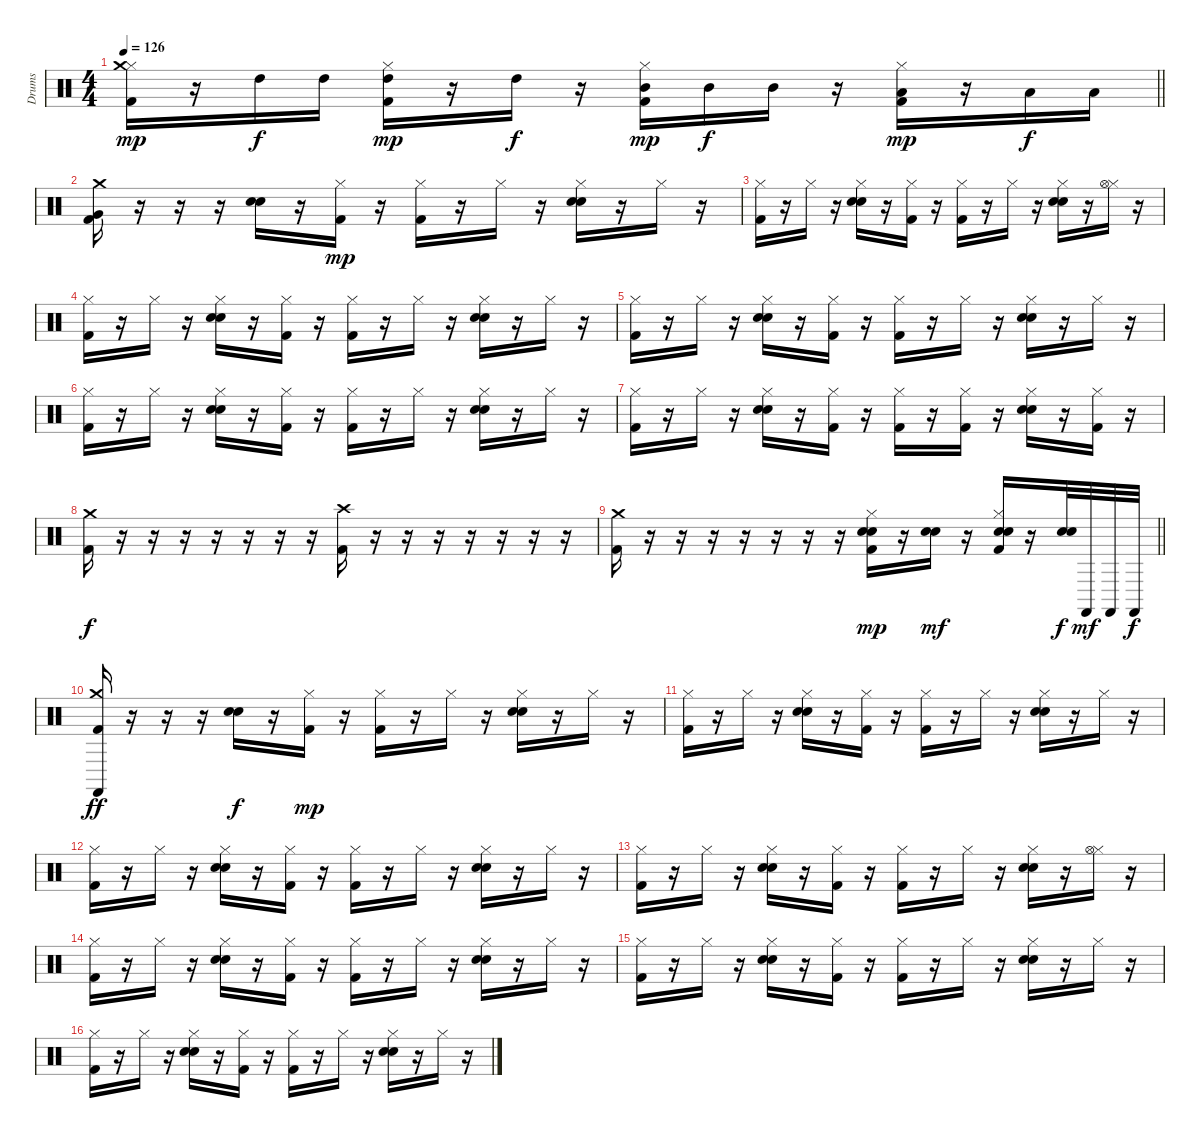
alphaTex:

\track ("Drums" "Drums") {instrument percussion}
\staff {score}
\articulation defaults
\ts (4 4)
\tempo 126
\clef neutral
\barLineRight lightlight
\ks c
("Hi-Hat (closed)" "Crash medium (hit)" "Kick (hit) 2").16{dy mp} r.16 "High Tom (hit)".16{dy f} "High Tom (hit)".16 ("Hi-Hat (closed)" "High Tom (hit)" "Kick (hit) 2").16{dy mp} r.16 "High Tom (hit)".16{dy f} r.16 ("Hi-Hat (closed)" "Mid Tom (hit)" "Kick (hit) 2").16{dy mp} "Mid Tom (hit)".16{dy f} "Mid Tom (hit)".16 r.16 ("Hi-Hat (closed)" "Low Tom (hit)" "Kick (hit) 2").16{dy mp} r.16 "Low Tom (hit)".16{dy f} "Low Tom (hit)".16 |
\section ("" "")
("Crash medium (hit)" "Very Low Tom (hit)" "Kick (hit) 2").16 r.16 r.16 r.16 ("Snare (hit) 2" "Electric Snare (hit)").16 r.16 ("Hi-Hat (closed)" "Kick (hit) 2").16{dy mp} r.16 ("Hi-Hat (closed)" "Kick (hit) 2").16 r.16 "Hi-Hat (closed)".16 r.16 ("Hi-Hat (closed)" "Snare (hit) 2" "Electric Snare (hit)").16 r.16 "Hi-Hat (closed)".16 r.16 |
("Hi-Hat (closed)" "Kick (hit) 2").16 r.16 "Hi-Hat (closed)".16 r.16 ("Hi-Hat (closed)" "Snare (hit) 2" "Electric Snare (hit)").16 r.16 ("Hi-Hat (closed)" "Kick (hit) 2").16 r.16 ("Hi-Hat (closed)" "Kick (hit) 2").16 r.16 "Hi-Hat (closed)".16 r.16 ("Hi-Hat (closed)" "Snare (hit) 2" "Electric Snare (hit)").16 r.16 ("Hi-Hat (closed)" "Hi-Hat (open)").16 r.16 |
("Hi-Hat (closed)" "Kick (hit) 2").16 r.16 "Hi-Hat (closed)".16 r.16 ("Hi-Hat (closed)" "Snare (hit) 2" "Electric Snare (hit)").16 r.16 ("Hi-Hat (closed)" "Kick (hit) 2").16 r.16 ("Hi-Hat (closed)" "Kick (hit) 2").16 r.16 "Hi-Hat (closed)".16 r.16 ("Hi-Hat (closed)" "Snare (hit) 2" "Electric Snare (hit)").16 r.16 "Hi-Hat (closed)".16 r.16 |
("Hi-Hat (closed)" "Kick (hit) 2").16 r.16 "Hi-Hat (closed)".16 r.16 ("Hi-Hat (closed)" "Snare (hit) 2" "Electric Snare (hit)").16 r.16 ("Hi-Hat (closed)" "Kick (hit) 2").16 r.16 ("Hi-Hat (closed)" "Kick (hit) 2").16 r.16 "Hi-Hat (closed)".16 r.16 ("Hi-Hat (closed)" "Snare (hit) 2" "Electric Snare (hit)").16 r.16 "Hi-Hat (closed)".16 r.16 |
("Hi-Hat (closed)" "Kick (hit) 2").16 r.16 "Hi-Hat (closed)".16 r.16 ("Hi-Hat (closed)" "Snare (hit) 2" "Electric Snare (hit)").16 r.16 ("Hi-Hat (closed)" "Kick (hit) 2").16 r.16 ("Hi-Hat (closed)" "Kick (hit) 2").16 r.16 "Hi-Hat (closed)".16 r.16 ("Hi-Hat (closed)" "Snare (hit) 2" "Electric Snare (hit)").16 r.16 "Hi-Hat (closed)".16 r.16 |
("Hi-Hat (closed)" "Kick (hit) 2").16 r.16 "Hi-Hat (closed)".16 r.16 ("Hi-Hat (closed)" "Snare (hit) 2" "Electric Snare (hit)").16 r.16 ("Hi-Hat (closed)" "Kick (hit) 2").16 r.16 ("Hi-Hat (closed)" "Kick (hit) 2").16 r.16 ("Hi-Hat (closed)" "Kick (hit) 2").16 r.16 ("Hi-Hat (closed)" "Snare (hit) 2" "Electric Snare (hit)").16 r.16 ("Hi-Hat (closed)" "Kick (hit) 2").16 r.16 |
("Crash medium (hit)" "Kick (hit) 2").16{dy f} r.16 r.16 r.16 r.16 r.16 r.16 r.16 ("Crash high (hit)" "Kick (hit) 2").16 r.16 r.16 r.16 r.16 r.16 r.16 r.16 |
\barLineRight lightlight
("Crash medium (hit)" "Kick (hit) 2").16 r.16 r.16 r.16 r.16 r.16 r.16 r.16 ("Hi-Hat (closed)" "Snare (hit) 2" "Electric Snare (hit)" "Kick (hit) 2").16{dy mp} r.16 ("Snare (hit) 2" "Electric Snare (hit)").16{dy mf} r.16 ("Hi-Hat (closed)" "Snare (hit) 2" "Electric Snare (hit)" "Kick (hit) 2").16 r.16 ("Snare (hit) 2" "Electric Snare (hit)").32{dy f} "Castanets (hit)".32{dy mf} "Castanets (hit)".32 "Castanets (hit)".32{dy f} |
\section ("" "")
("Crash medium (hit)" "Castanets (hit)" "Kick (hit) 2").16{dy ff} r.16 r.16 r.16 ("Snare (hit) 2" "Electric Snare (hit)").16{dy f} r.16 ("Hi-Hat (closed)" "Kick (hit) 2").16{dy mp} r.16 ("Hi-Hat (closed)" "Kick (hit) 2").16 r.16 "Hi-Hat (closed)".16 r.16 ("Hi-Hat (closed)" "Snare (hit) 2" "Electric Snare (hit)").16 r.16 "Hi-Hat (closed)".16 r.16 |
("Hi-Hat (closed)" "Kick (hit) 2").16 r.16 "Hi-Hat (closed)".16 r.16 ("Hi-Hat (closed)" "Snare (hit) 2" "Electric Snare (hit)").16 r.16 ("Hi-Hat (closed)" "Kick (hit) 2").16 r.16 ("Hi-Hat (closed)" "Kick (hit) 2").16 r.16 "Hi-Hat (closed)".16 r.16 ("Hi-Hat (closed)" "Snare (hit) 2" "Electric Snare (hit)").16 r.16 "Hi-Hat (closed)".16 r.16 |
("Hi-Hat (closed)" "Kick (hit) 2").16 r.16 "Hi-Hat (closed)".16 r.16 ("Hi-Hat (closed)" "Snare (hit) 2" "Electric Snare (hit)").16 r.16 ("Hi-Hat (closed)" "Kick (hit) 2").16 r.16 ("Hi-Hat (closed)" "Kick (hit) 2").16 r.16 "Hi-Hat (closed)".16 r.16 ("Hi-Hat (closed)" "Snare (hit) 2" "Electric Snare (hit)").16 r.16 "Hi-Hat (closed)".16 r.16 |
("Hi-Hat (closed)" "Kick (hit) 2").16 r.16 "Hi-Hat (closed)".16 r.16 ("Hi-Hat (closed)" "Snare (hit) 2" "Electric Snare (hit)").16 r.16 ("Hi-Hat (closed)" "Kick (hit) 2").16 r.16 ("Hi-Hat (closed)" "Kick (hit) 2").16 r.16 "Hi-Hat (closed)".16 r.16 ("Hi-Hat (closed)" "Snare (hit) 2" "Electric Snare (hit)").16 r.16 ("Hi-Hat (closed)" "Hi-Hat (open)").16 r.16 |
("Hi-Hat (closed)" "Kick (hit) 2").16 r.16 "Hi-Hat (closed)".16 r.16 ("Hi-Hat (closed)" "Snare (hit) 2" "Electric Snare (hit)").16 r.16 ("Hi-Hat (closed)" "Kick (hit) 2").16 r.16 ("Hi-Hat (closed)" "Kick (hit) 2").16 r.16 "Hi-Hat (closed)".16 r.16 ("Hi-Hat (closed)" "Snare (hit) 2" "Electric Snare (hit)").16 r.16 "Hi-Hat (closed)".16 r.16 |
("Hi-Hat (closed)" "Kick (hit) 2").16 r.16 "Hi-Hat (closed)".16 r.16 ("Hi-Hat (closed)" "Snare (hit) 2" "Electric Snare (hit)").16 r.16 ("Hi-Hat (closed)" "Kick (hit) 2").16 r.16 ("Hi-Hat (closed)" "Kick (hit) 2").16 r.16 "Hi-Hat (closed)".16 r.16 ("Hi-Hat (closed)" "Snare (hit) 2" "Electric Snare (hit)").16 r.16 "Hi-Hat (closed)".16 r.16 |
("Hi-Hat (closed)" "Kick (hit) 2").16 r.16 "Hi-Hat (closed)".16 r.16 ("Hi-Hat (closed)" "Snare (hit) 2" "Electric Snare (hit)").16 r.16 ("Hi-Hat (closed)" "Kick (hit) 2").16 r.16 ("Hi-Hat (closed)" "Kick (hit) 2").16 r.16 "Hi-Hat (closed)".16 r.16 ("Hi-Hat (closed)" "Snare (hit) 2" "Electric Snare (hit)").16 r.16 "Hi-Hat (closed)".16 r.16
